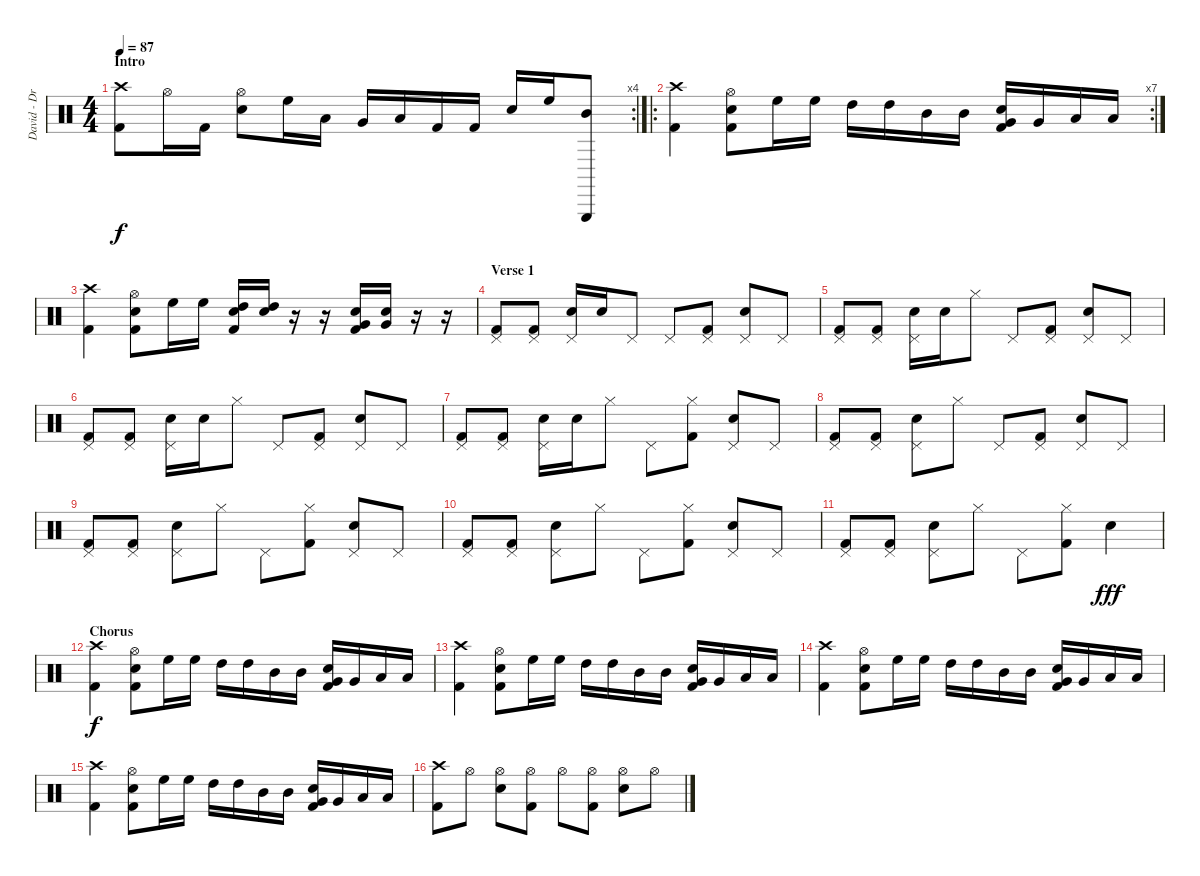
\track ("David - Drums" "David - Dr") {instrument percussion}
\staff {score}
\articulation defaults
\rc 4
\ts (4 4)
\section ("" "Intro")
\tempo 87
\clef neutral
\ks c
("Crash high (hit)" "Kick (hit) 2").8{dy f volume 10} "Hi-Hat (open)".16 "Kick (hit) 2".16 ("Hi-Hat (open)" "Electric Snare (hit)").8 "High Floor Tom (hit)".16 "Low Tom (hit)".16 "Very Low Tom (hit)".16 "Low Floor Tom (hit)".16 "Kick (hit) 2".16 "Kick (hit) 2".16 "Electric Snare (hit)".16 "High Floor Tom (hit)".16 ("Mid Tom (hit)" "Triangle (hit)").8 |
\ro
\rc 7
("Crash high (hit)" "Kick (hit) 2").4{volume 16} ("Hi-Hat (open)" "Kick (hit) 2" "Electric Snare (hit)").8 "High Floor Tom (hit)".16 "High Floor Tom (hit)".16 "High Tom (hit)".16 "High Tom (hit)".16 "Mid Tom (hit)".16 "Mid Tom (hit)".16 ("Very Low Tom (hit)" "Kick (hit) 2" "Electric Snare (hit)").16 "Very Low Tom (hit)".16 "Low Floor Tom (hit)".16 "Low Floor Tom (hit)".16 |
("Crash high (hit)" "Kick (hit) 2").4 ("Hi-Hat (open)" "Kick (hit) 2" "Electric Snare (hit)").8 "High Floor Tom (hit)".16 "High Floor Tom (hit)".16 ("High Tom (hit)" "Kick (hit) 2" "Electric Snare (hit)").16 ("High Tom (hit)" "Electric Snare (hit)").16 r.16 r.16 ("Very Low Tom (hit)" "Kick (hit) 2" "Electric Snare (hit)").16 ("Very Low Tom (hit)" "Electric Snare (hit)").16 r.16 r.16 |
\section ("" "Verse 1")
("Pedal Hi-Hat (hit)" "Kick (hit) 2").8 ("Pedal Hi-Hat (hit)" "Kick (hit) 2").8 ("Pedal Hi-Hat (hit)" "Electric Snare (hit)").16 "Electric Snare (hit)".16 "Pedal Hi-Hat (hit)".8 "Pedal Hi-Hat (hit)".8 ("Pedal Hi-Hat (hit)" "Kick (hit) 2").8 ("Pedal Hi-Hat (hit)" "Electric Snare (hit)").8 "Pedal Hi-Hat (hit)".8 |
("Pedal Hi-Hat (hit)" "Kick (hit) 2").8 ("Pedal Hi-Hat (hit)" "Kick (hit) 2").8 ("Pedal Hi-Hat (hit)" "Electric Snare (hit)").16 "Electric Snare (hit)".16 "Hi-Hat (closed)".8 "Pedal Hi-Hat (hit)".8 ("Pedal Hi-Hat (hit)" "Kick (hit) 2").8 ("Pedal Hi-Hat (hit)" "Electric Snare (hit)").8 "Pedal Hi-Hat (hit)".8 |
("Pedal Hi-Hat (hit)" "Kick (hit) 2").8 ("Pedal Hi-Hat (hit)" "Kick (hit) 2").8 ("Pedal Hi-Hat (hit)" "Electric Snare (hit)").16 "Electric Snare (hit)".16 "Hi-Hat (closed)".8 "Pedal Hi-Hat (hit)".8 ("Pedal Hi-Hat (hit)" "Kick (hit) 2").8 ("Pedal Hi-Hat (hit)" "Electric Snare (hit)").8 "Pedal Hi-Hat (hit)".8 |
("Pedal Hi-Hat (hit)" "Kick (hit) 2").8 ("Pedal Hi-Hat (hit)" "Kick (hit) 2").8 ("Pedal Hi-Hat (hit)" "Electric Snare (hit)").16 "Electric Snare (hit)".16 "Hi-Hat (closed)".8 "Pedal Hi-Hat (hit)".8 ("Hi-Hat (closed)" "Kick (hit) 2").8 ("Pedal Hi-Hat (hit)" "Electric Snare (hit)").8 "Pedal Hi-Hat (hit)".8 |
("Pedal Hi-Hat (hit)" "Kick (hit) 2").8 ("Pedal Hi-Hat (hit)" "Kick (hit) 2").8 ("Pedal Hi-Hat (hit)" "Electric Snare (hit)").8 "Hi-Hat (closed)".8 "Pedal Hi-Hat (hit)".8 ("Pedal Hi-Hat (hit)" "Kick (hit) 2").8 ("Pedal Hi-Hat (hit)" "Electric Snare (hit)").8 "Pedal Hi-Hat (hit)".8 |
("Pedal Hi-Hat (hit)" "Kick (hit) 2").8 ("Pedal Hi-Hat (hit)" "Kick (hit) 2").8 ("Pedal Hi-Hat (hit)" "Electric Snare (hit)").8 "Hi-Hat (closed)".8 "Pedal Hi-Hat (hit)".8 ("Hi-Hat (closed)" "Kick (hit) 2").8 ("Pedal Hi-Hat (hit)" "Electric Snare (hit)").8 "Pedal Hi-Hat (hit)".8 |
("Pedal Hi-Hat (hit)" "Kick (hit) 2").8 ("Pedal Hi-Hat (hit)" "Kick (hit) 2").8 ("Pedal Hi-Hat (hit)" "Electric Snare (hit)").8 "Hi-Hat (closed)".8 "Pedal Hi-Hat (hit)".8 ("Hi-Hat (closed)" "Kick (hit) 2").8 ("Pedal Hi-Hat (hit)" "Electric Snare (hit)").8 "Pedal Hi-Hat (hit)".8 |
("Pedal Hi-Hat (hit)" "Kick (hit) 2").8 ("Pedal Hi-Hat (hit)" "Kick (hit) 2").8 ("Pedal Hi-Hat (hit)" "Electric Snare (hit)").8 "Hi-Hat (closed)".8 "Pedal Hi-Hat (hit)".8 ("Hi-Hat (closed)" "Kick (hit) 2").8 "Electric Snare (hit)".4{dy fff} |
\section ("" "Chorus")
("Crash high (hit)" "Kick (hit) 2").4{dy f} ("Hi-Hat (open)" "Kick (hit) 2" "Electric Snare (hit)").8 "High Floor Tom (hit)".16 "High Floor Tom (hit)".16 "High Tom (hit)".16 "High Tom (hit)".16 "Mid Tom (hit)".16 "Mid Tom (hit)".16 ("Very Low Tom (hit)" "Kick (hit) 2" "Electric Snare (hit)").16 "Very Low Tom (hit)".16 "Low Floor Tom (hit)".16 "Low Floor Tom (hit)".16 |
("Crash high (hit)" "Kick (hit) 2").4 ("Hi-Hat (open)" "Kick (hit) 2" "Electric Snare (hit)").8 "High Floor Tom (hit)".16 "High Floor Tom (hit)".16 "High Tom (hit)".16 "High Tom (hit)".16 "Mid Tom (hit)".16 "Mid Tom (hit)".16 ("Very Low Tom (hit)" "Kick (hit) 2" "Electric Snare (hit)").16 "Very Low Tom (hit)".16 "Low Floor Tom (hit)".16 "Low Floor Tom (hit)".16 |
("Crash high (hit)" "Kick (hit) 2").4 ("Hi-Hat (open)" "Kick (hit) 2" "Electric Snare (hit)").8 "High Floor Tom (hit)".16 "High Floor Tom (hit)".16 "High Tom (hit)".16 "High Tom (hit)".16 "Mid Tom (hit)".16 "Mid Tom (hit)".16 ("Very Low Tom (hit)" "Kick (hit) 2" "Electric Snare (hit)").16 "Very Low Tom (hit)".16 "Low Floor Tom (hit)".16 "Low Floor Tom (hit)".16 |
("Crash high (hit)" "Kick (hit) 2").4 ("Hi-Hat (open)" "Kick (hit) 2" "Electric Snare (hit)").8 "High Floor Tom (hit)".16 "High Floor Tom (hit)".16 "High Tom (hit)".16 "High Tom (hit)".16 "Mid Tom (hit)".16 "Mid Tom (hit)".16 ("Very Low Tom (hit)" "Kick (hit) 2" "Electric Snare (hit)").16 "Very Low Tom (hit)".16 "Low Floor Tom (hit)".16 "Low Floor Tom (hit)".16 |
("Crash high (hit)" "Kick (hit) 2").8 "Hi-Hat (open)".8 ("Hi-Hat (open)" "Electric Snare (hit)").8 ("Hi-Hat (open)" "Kick (hit) 2").8 "Hi-Hat (open)".8 ("Hi-Hat (open)" "Kick (hit) 2").8 ("Hi-Hat (open)" "Electric Snare (hit)").8 "Hi-Hat (open)".8
